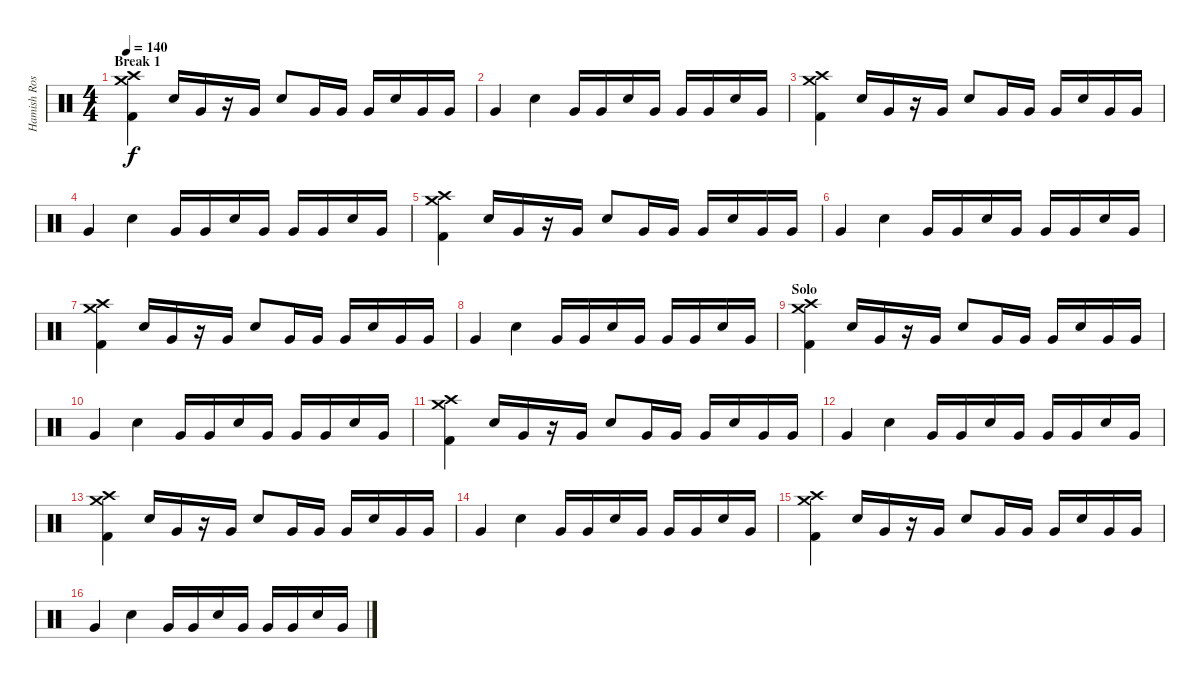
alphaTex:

\track ("Hamish Rosser" "Hamish Ros") {instrument percussion}
\staff {score}
\articulation defaults
\ts (4 4)
\section ("" "Break 1")
\tempo 140
\clef neutral
\ks c
("Crash medium (hit)" "Crash high (hit)" "Kick (hit) 2").4{dy f} "Snare (hit) 2".16 "Very Low Tom (hit)".16 r.16 "Very Low Tom (hit)".16 "Snare (hit) 2".8 "Very Low Tom (hit)".16 "Very Low Tom (hit)".16 "Very Low Tom (hit)".16 "Snare (hit) 2".16 "Very Low Tom (hit)".16 "Very Low Tom (hit)".16 |
"Very Low Tom (hit)".4 "Snare (hit) 2".4 "Very Low Tom (hit)".16 "Very Low Tom (hit)".16 "Snare (hit) 2".16 "Very Low Tom (hit)".16 "Very Low Tom (hit)".16 "Very Low Tom (hit)".16 "Snare (hit) 2".16 "Very Low Tom (hit)".16 |
("Crash medium (hit)" "Crash high (hit)" "Kick (hit) 2").4 "Snare (hit) 2".16 "Very Low Tom (hit)".16 r.16 "Very Low Tom (hit)".16 "Snare (hit) 2".8 "Very Low Tom (hit)".16 "Very Low Tom (hit)".16 "Very Low Tom (hit)".16 "Snare (hit) 2".16 "Very Low Tom (hit)".16 "Very Low Tom (hit)".16 |
"Very Low Tom (hit)".4 "Snare (hit) 2".4 "Very Low Tom (hit)".16 "Very Low Tom (hit)".16 "Snare (hit) 2".16 "Very Low Tom (hit)".16 "Very Low Tom (hit)".16 "Very Low Tom (hit)".16 "Snare (hit) 2".16 "Very Low Tom (hit)".16 |
("Crash medium (hit)" "Crash high (hit)" "Kick (hit) 2").4 "Snare (hit) 2".16 "Very Low Tom (hit)".16 r.16 "Very Low Tom (hit)".16 "Snare (hit) 2".8 "Very Low Tom (hit)".16 "Very Low Tom (hit)".16 "Very Low Tom (hit)".16 "Snare (hit) 2".16 "Very Low Tom (hit)".16 "Very Low Tom (hit)".16 |
"Very Low Tom (hit)".4 "Snare (hit) 2".4 "Very Low Tom (hit)".16 "Very Low Tom (hit)".16 "Snare (hit) 2".16 "Very Low Tom (hit)".16 "Very Low Tom (hit)".16 "Very Low Tom (hit)".16 "Snare (hit) 2".16 "Very Low Tom (hit)".16 |
("Crash medium (hit)" "Crash high (hit)" "Kick (hit) 2").4 "Snare (hit) 2".16 "Very Low Tom (hit)".16 r.16 "Very Low Tom (hit)".16 "Snare (hit) 2".8 "Very Low Tom (hit)".16 "Very Low Tom (hit)".16 "Very Low Tom (hit)".16 "Snare (hit) 2".16 "Very Low Tom (hit)".16 "Very Low Tom (hit)".16 |
"Very Low Tom (hit)".4 "Snare (hit) 2".4 "Very Low Tom (hit)".16 "Very Low Tom (hit)".16 "Snare (hit) 2".16 "Very Low Tom (hit)".16 "Very Low Tom (hit)".16 "Very Low Tom (hit)".16 "Snare (hit) 2".16 "Very Low Tom (hit)".16 |
\section ("" "Solo")
("Crash medium (hit)" "Crash high (hit)" "Kick (hit) 2").4 "Snare (hit) 2".16 "Very Low Tom (hit)".16 r.16 "Very Low Tom (hit)".16 "Snare (hit) 2".8 "Very Low Tom (hit)".16 "Very Low Tom (hit)".16 "Very Low Tom (hit)".16 "Snare (hit) 2".16 "Very Low Tom (hit)".16 "Very Low Tom (hit)".16 |
"Very Low Tom (hit)".4 "Snare (hit) 2".4 "Very Low Tom (hit)".16 "Very Low Tom (hit)".16 "Snare (hit) 2".16 "Very Low Tom (hit)".16 "Very Low Tom (hit)".16 "Very Low Tom (hit)".16 "Snare (hit) 2".16 "Very Low Tom (hit)".16 |
("Crash medium (hit)" "Crash high (hit)" "Kick (hit) 2").4 "Snare (hit) 2".16 "Very Low Tom (hit)".16 r.16 "Very Low Tom (hit)".16 "Snare (hit) 2".8 "Very Low Tom (hit)".16 "Very Low Tom (hit)".16 "Very Low Tom (hit)".16 "Snare (hit) 2".16 "Very Low Tom (hit)".16 "Very Low Tom (hit)".16 |
"Very Low Tom (hit)".4 "Snare (hit) 2".4 "Very Low Tom (hit)".16 "Very Low Tom (hit)".16 "Snare (hit) 2".16 "Very Low Tom (hit)".16 "Very Low Tom (hit)".16 "Very Low Tom (hit)".16 "Snare (hit) 2".16 "Very Low Tom (hit)".16 |
("Crash medium (hit)" "Crash high (hit)" "Kick (hit) 2").4 "Snare (hit) 2".16 "Very Low Tom (hit)".16 r.16 "Very Low Tom (hit)".16 "Snare (hit) 2".8 "Very Low Tom (hit)".16 "Very Low Tom (hit)".16 "Very Low Tom (hit)".16 "Snare (hit) 2".16 "Very Low Tom (hit)".16 "Very Low Tom (hit)".16 |
"Very Low Tom (hit)".4 "Snare (hit) 2".4 "Very Low Tom (hit)".16 "Very Low Tom (hit)".16 "Snare (hit) 2".16 "Very Low Tom (hit)".16 "Very Low Tom (hit)".16 "Very Low Tom (hit)".16 "Snare (hit) 2".16 "Very Low Tom (hit)".16 |
("Crash medium (hit)" "Crash high (hit)" "Kick (hit) 2").4 "Snare (hit) 2".16 "Very Low Tom (hit)".16 r.16 "Very Low Tom (hit)".16 "Snare (hit) 2".8 "Very Low Tom (hit)".16 "Very Low Tom (hit)".16 "Very Low Tom (hit)".16 "Snare (hit) 2".16 "Very Low Tom (hit)".16 "Very Low Tom (hit)".16 |
"Very Low Tom (hit)".4 "Snare (hit) 2".4 "Very Low Tom (hit)".16 "Very Low Tom (hit)".16 "Snare (hit) 2".16 "Very Low Tom (hit)".16 "Very Low Tom (hit)".16 "Very Low Tom (hit)".16 "Snare (hit) 2".16 "Very Low Tom (hit)".16
